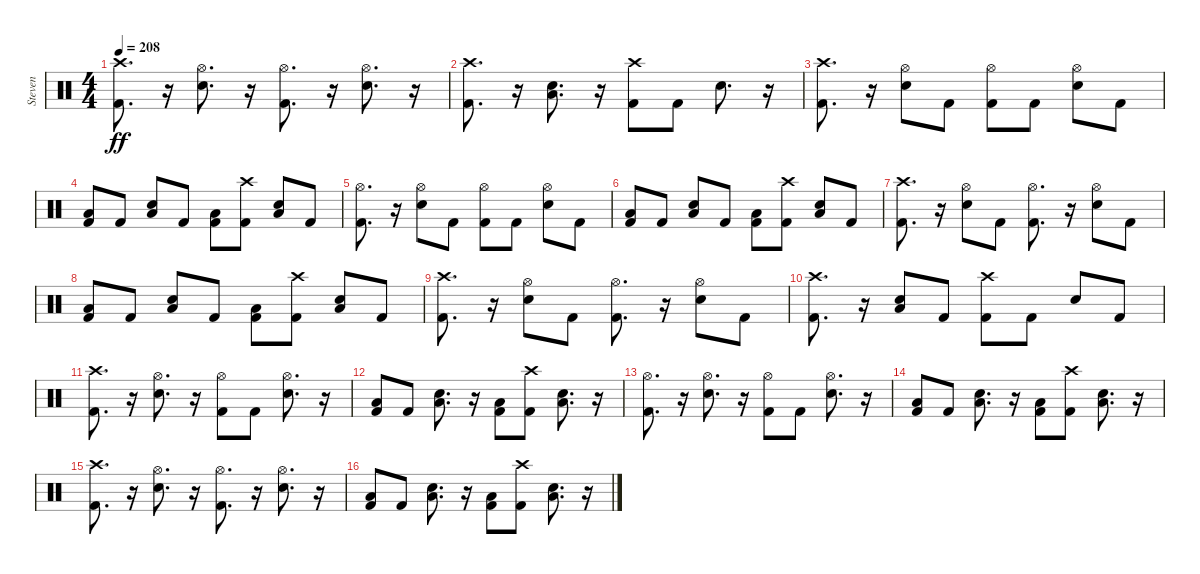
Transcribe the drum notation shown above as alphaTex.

\track ("Steven" "Steven") {instrument percussion}
\staff {score}
\articulation defaults
\ts (4 4)
\tempo 208
\clef neutral
\ks c
("Kick (hit) 2" "Crash high (hit)").8{d dy ff} r.16 ("Snare (hit) 2" "Hi-Hat (open)").8{d} r.16 ("Kick (hit) 2" "Hi-Hat (open)").8{d} r.16 ("Snare (hit) 2" "Hi-Hat (open)").8{d} r.16 |
("Kick (hit) 2" "Crash high (hit)").8{d} r.16 ("Snare (hit) 2" "Low Tom (hit)").8{d} r.16 ("Kick (hit) 2" "Crash high (hit)").8 "Kick (hit) 2".8 "Snare (hit) 2".8{d} r.16 |
("Kick (hit) 2" "Crash high (hit)").8{d} r.16 ("Snare (hit) 2" "Hi-Hat (open)").8 "Kick (hit) 2".8 ("Kick (hit) 2" "Hi-Hat (open)").8 "Kick (hit) 2".8 ("Snare (hit) 2" "Hi-Hat (open)").8 "Kick (hit) 2".8 |
("Kick (hit) 2" "Low Tom (hit)").8 "Kick (hit) 2".8 ("Snare (hit) 2" "Low Tom (hit)").8 "Kick (hit) 2".8 ("Kick (hit) 2" "Low Tom (hit)").8 ("Kick (hit) 2" "Crash high (hit)").8 ("Snare (hit) 2" "Low Tom (hit)").8 "Kick (hit) 2".8 |
("Kick (hit) 2" "Hi-Hat (open)").8{d} r.16 ("Snare (hit) 2" "Hi-Hat (open)").8 "Kick (hit) 2".8 ("Kick (hit) 2" "Hi-Hat (open)").8 "Kick (hit) 2".8 ("Snare (hit) 2" "Hi-Hat (open)").8 "Kick (hit) 2".8 |
("Kick (hit) 2" "Low Tom (hit)").8 "Kick (hit) 2".8 ("Snare (hit) 2" "Low Tom (hit)").8 "Kick (hit) 2".8 ("Kick (hit) 2" "Low Tom (hit)").8 ("Kick (hit) 2" "Crash high (hit)").8 ("Snare (hit) 2" "Low Tom (hit)").8 "Kick (hit) 2".8 |
("Kick (hit) 2" "Crash high (hit)").8{d} r.16 ("Snare (hit) 2" "Hi-Hat (open)").8 "Kick (hit) 2".8 ("Kick (hit) 2" "Hi-Hat (open)").8{d} r.16 ("Snare (hit) 2" "Hi-Hat (open)").8 "Kick (hit) 2".8 |
("Kick (hit) 2" "Low Tom (hit)").8 "Kick (hit) 2".8 ("Snare (hit) 2" "Low Tom (hit)").8 "Kick (hit) 2".8 ("Kick (hit) 2" "Low Tom (hit)").8 ("Kick (hit) 2" "Crash high (hit)").8 ("Snare (hit) 2" "Low Tom (hit)").8 "Kick (hit) 2".8 |
("Kick (hit) 2" "Crash high (hit)").8{d} r.16 ("Snare (hit) 2" "Hi-Hat (open)").8 "Kick (hit) 2".8 ("Kick (hit) 2" "Hi-Hat (open)").8{d} r.16 ("Snare (hit) 2" "Hi-Hat (open)").8 "Kick (hit) 2".8 |
("Kick (hit) 2" "Crash high (hit)").8{d} r.16 ("Snare (hit) 2" "Low Tom (hit)").8 "Kick (hit) 2".8 ("Kick (hit) 2" "Crash high (hit)").8 "Kick (hit) 2".8 "Snare (hit) 2".8 "Kick (hit) 2".8 |
("Kick (hit) 2" "Crash high (hit)").8{d} r.16 ("Snare (hit) 2" "Hi-Hat (open)").8{d} r.16 ("Kick (hit) 2" "Hi-Hat (open)").8 "Kick (hit) 2".8 ("Snare (hit) 2" "Hi-Hat (open)").8{d} r.16 |
("Kick (hit) 2" "Low Tom (hit)").8 "Kick (hit) 2".8 ("Snare (hit) 2" "Low Tom (hit)").8{d} r.16 ("Kick (hit) 2" "Low Tom (hit)").8 ("Kick (hit) 2" "Crash high (hit)").8 ("Snare (hit) 2" "Low Tom (hit)").8{d} r.16 |
("Kick (hit) 2" "Hi-Hat (open)").8{d} r.16 ("Snare (hit) 2" "Hi-Hat (open)").8{d} r.16 ("Kick (hit) 2" "Hi-Hat (open)").8 "Kick (hit) 2".8 ("Snare (hit) 2" "Hi-Hat (open)").8{d} r.16 |
("Kick (hit) 2" "Low Tom (hit)").8 "Kick (hit) 2".8 ("Snare (hit) 2" "Low Tom (hit)").8{d} r.16 ("Kick (hit) 2" "Low Tom (hit)").8 ("Kick (hit) 2" "Crash high (hit)").8 ("Snare (hit) 2" "Low Tom (hit)").8{d} r.16 |
("Kick (hit) 2" "Crash high (hit)").8{d} r.16 ("Snare (hit) 2" "Hi-Hat (open)").8{d} r.16 ("Kick (hit) 2" "Hi-Hat (open)").8{d} r.16 ("Snare (hit) 2" "Hi-Hat (open)").8{d} r.16 |
("Kick (hit) 2" "Low Tom (hit)").8 "Kick (hit) 2".8 ("Snare (hit) 2" "Low Tom (hit)").8{d} r.16 ("Kick (hit) 2" "Low Tom (hit)").8 ("Kick (hit) 2" "Crash high (hit)").8 ("Snare (hit) 2" "Low Tom (hit)").8{d} r.16
